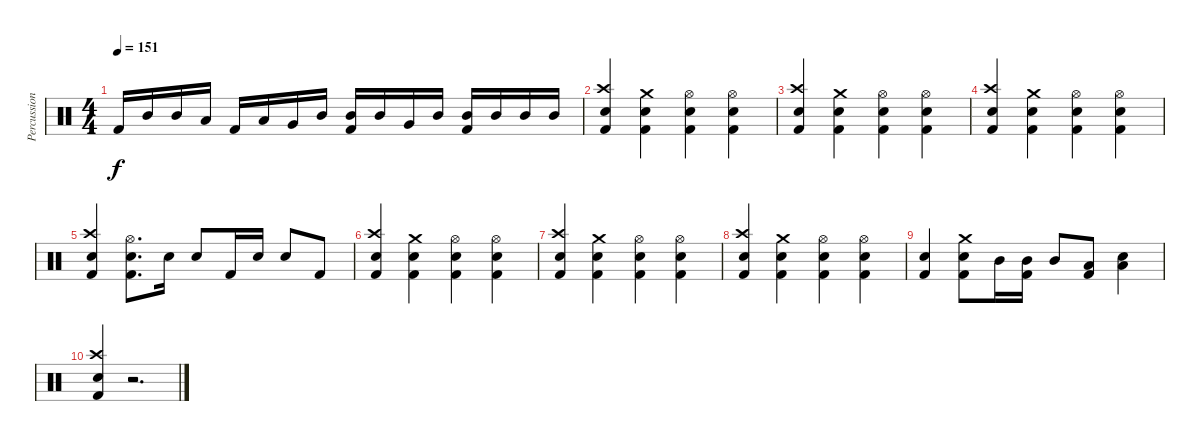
\track ("Percussion" "Percussion") {instrument percussion}
\staff {score}
\articulation defaults
\ts (4 4)
\tempo 151
\clef neutral
\ks c "Kick (hit) 2".16{dy f} "Mid Tom (hit)".16 "Mid Tom (hit)".16 "Low Tom (hit)".16 "Kick (hit) 2".16 "Low Tom (hit)".16 "Very Low Tom (hit)".16 "Mid Tom (hit)".16
("Mid Tom (hit)" "Kick (hit) 2").16 "Mid Tom (hit)".16 "Very Low Tom (hit)".16 "Mid Tom (hit)".16 ("Mid Tom (hit)" "Kick (hit) 2").16 "Mid Tom (hit)".16 "Mid Tom (hit)".16 "Mid Tom (hit)".16 |
("Crash high (hit)" "Snare (hit) 2" "Kick (hit) 2").4 ("Crash medium (hit)" "Snare (hit) 2" "Kick (hit) 2").4 ("Hi-Hat (open)" "Snare (hit) 2" "Kick (hit) 2").4 ("Hi-Hat (open)" "Snare (hit) 2" "Kick (hit) 2").4 |
("Crash high (hit)" "Snare (hit) 2" "Kick (hit) 2").4 ("Crash medium (hit)" "Snare (hit) 2" "Kick (hit) 2").4 ("Hi-Hat (open)" "Snare (hit) 2" "Kick (hit) 2").4 ("Hi-Hat (open)" "Snare (hit) 2" "Kick (hit) 2").4 |
("Crash high (hit)" "Snare (hit) 2" "Kick (hit) 2").4 ("Crash medium (hit)" "Snare (hit) 2" "Kick (hit) 2").4 ("Hi-Hat (open)" "Snare (hit) 2" "Kick (hit) 2").4 ("Hi-Hat (open)" "Snare (hit) 2" "Kick (hit) 2").4 |
("Crash high (hit)" "Snare (hit) 2" "Kick (hit) 2").4 ("Hi-Hat (open)" "Snare (hit) 2" "Kick (hit) 2").8{d} "Snare (hit) 2".16 "Snare (hit) 2".8 "Kick (hit) 2".16 "Snare (hit) 2".16 "Snare (hit) 2".8 "Kick (hit) 2".8 |
("Crash high (hit)" "Snare (hit) 2" "Kick (hit) 2").4 ("Crash medium (hit)" "Snare (hit) 2" "Kick (hit) 2").4 ("Hi-Hat (open)" "Snare (hit) 2" "Kick (hit) 2").4 ("Hi-Hat (open)" "Snare (hit) 2" "Kick (hit) 2").4 |
("Crash high (hit)" "Snare (hit) 2" "Kick (hit) 2").4 ("Crash medium (hit)" "Snare (hit) 2" "Kick (hit) 2").4 ("Hi-Hat (open)" "Snare (hit) 2" "Kick (hit) 2").4 ("Hi-Hat (open)" "Snare (hit) 2" "Kick (hit) 2").4 |
("Crash high (hit)" "Snare (hit) 2" "Kick (hit) 2").4 ("Crash medium (hit)" "Snare (hit) 2" "Kick (hit) 2").4 ("Hi-Hat (open)" "Snare (hit) 2" "Kick (hit) 2").4 ("Hi-Hat (open)" "Snare (hit) 2" "Kick (hit) 2").4 |
("Snare (hit) 2" "Kick (hit) 2").4 ("Crash medium (hit)" "Snare (hit) 2" "Kick (hit) 2").8 "Mid Tom (hit)".16 ("Mid Tom (hit)" "Kick (hit) 2").16 "Mid Tom (hit)".8 ("Low Tom (hit)" "Kick (hit) 2").8 ("Low Tom (hit)" "Snare (hit) 2").4 |
("Crash high (hit)" "Snare (hit) 2" "Kick (hit) 2").4 r.2{d}
